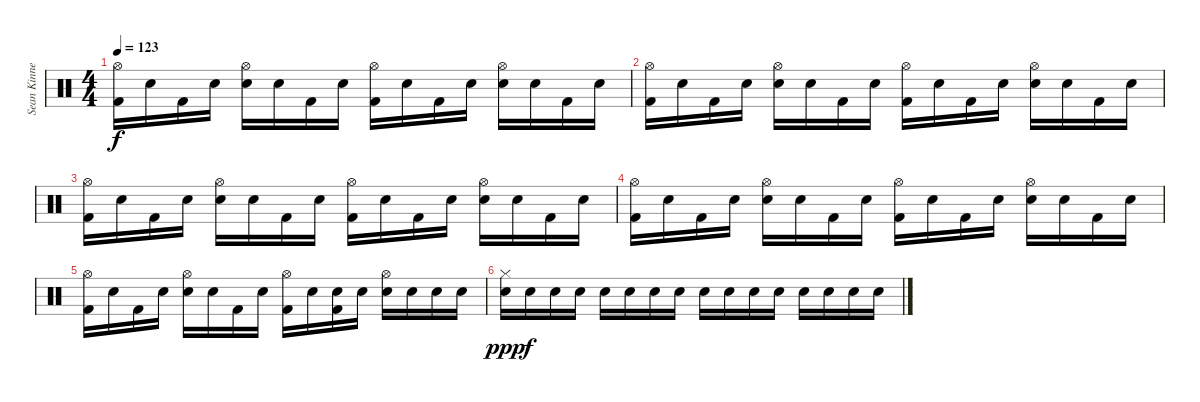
\track ("Sean Kinney - Drums" "Sean Kinne") {instrument percussion}
\staff {score}
\articulation defaults
\ts (4 4)
\tempo 123
\clef neutral
\ks c
("Hi-Hat (open)" "Kick (hit) 2").16{dy f} "Snare (hit)".16 "Kick (hit) 2".16 "Snare (hit)".16 ("Hi-Hat (open)" "Electric Snare (hit)").16 "Snare (hit)".16 "Kick (hit) 2".16 "Snare (hit)".16 ("Hi-Hat (open)" "Kick (hit) 2").16 "Snare (hit)".16 "Kick (hit) 2".16 "Snare (hit)".16 ("Hi-Hat (open)" "Electric Snare (hit)").16 "Snare (hit)".16 "Kick (hit) 2".16 "Snare (hit)".16 |
("Hi-Hat (open)" "Kick (hit) 2").16 "Snare (hit)".16 "Kick (hit) 2".16 "Snare (hit)".16 ("Hi-Hat (open)" "Electric Snare (hit)").16 "Snare (hit)".16 "Kick (hit) 2".16 "Snare (hit)".16 ("Hi-Hat (open)" "Kick (hit) 2").16 "Snare (hit)".16 "Kick (hit) 2".16 "Snare (hit)".16 ("Hi-Hat (open)" "Electric Snare (hit)").16 "Snare (hit)".16 "Kick (hit) 2".16 "Snare (hit)".16 |
("Hi-Hat (open)" "Kick (hit) 2").16 "Snare (hit)".16 "Kick (hit) 2".16 "Snare (hit)".16 ("Hi-Hat (open)" "Electric Snare (hit)").16 "Snare (hit)".16 "Kick (hit) 2".16 "Snare (hit)".16 ("Hi-Hat (open)" "Kick (hit) 2").16 "Snare (hit)".16 "Kick (hit) 2".16 "Snare (hit)".16 ("Hi-Hat (open)" "Electric Snare (hit)").16 "Snare (hit)".16 "Kick (hit) 2".16 "Snare (hit)".16 |
("Hi-Hat (open)" "Kick (hit) 2").16 "Snare (hit)".16 "Kick (hit) 2".16 "Snare (hit)".16 ("Hi-Hat (open)" "Electric Snare (hit)").16 "Snare (hit)".16 "Kick (hit) 2".16 "Snare (hit)".16 ("Hi-Hat (open)" "Kick (hit) 2").16 "Snare (hit)".16 "Kick (hit) 2".16 "Snare (hit)".16 ("Hi-Hat (open)" "Electric Snare (hit)").16 "Snare (hit)".16 "Kick (hit) 2".16 "Snare (hit)".16 |
("Hi-Hat (open)" "Kick (hit) 2").16 "Snare (hit)".16 "Kick (hit) 2".16 "Snare (hit)".16 ("Hi-Hat (open)" "Electric Snare (hit)").16 "Snare (hit)".16 "Kick (hit) 2".16 "Snare (hit)".16 ("Hi-Hat (open)" "Kick (hit) 2").16 "Snare (hit)".16 ("Snare (hit)" "Kick (hit) 2").16 "Snare (hit)".16 ("Hi-Hat (open)" "Electric Snare (hit)").16 "Snare (hit)".16 "Snare (hit)".16 "Snare (hit)".16 |
("Hi-Hat (closed)" "Snare (hit)").16{dy ppp} "Snare (hit)".16{dy f} "Snare (hit)".16 "Snare (hit)".16 "Snare (hit)".16 "Snare (hit)".16 "Snare (hit)".16 "Snare (hit)".16 "Snare (hit)".16 "Snare (hit)".16 "Snare (hit)".16 "Snare (hit)".16 "Snare (hit)".16 "Snare (hit)".16 "Snare (hit)".16 "Snare (hit)".16
